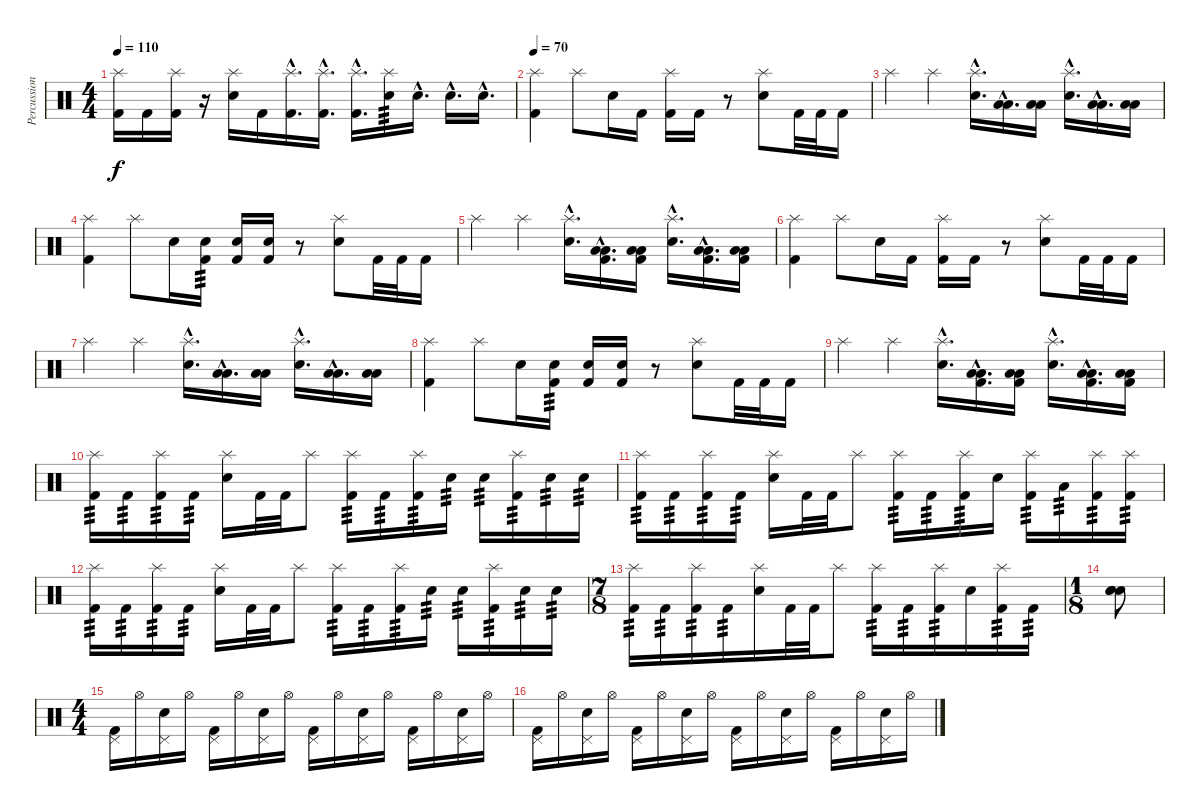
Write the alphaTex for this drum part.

\track ("Percussion" "Percussion") {instrument percussion}
\staff {score}
\articulation defaults
\ts (4 4)
\tempo 110
\clef neutral
\ks c
("Splash (hit)" "Kick (hit) 2").16{dy f} "Kick (hit) 2".16 ("Splash (hit)" "Kick (hit) 2").16 r.16 ("Splash (hit)" "Electric Snare (hit)").16 "Kick (hit) 2".16 ("Splash (hit)"{hac} "Kick (hit) 2"{hac}).16{d} ("Splash (hit)"{hac} "Kick (hit) 2"{hac}).16{d} ("Splash (hit)"{hac} "Kick (hit) 2"{hac}).16{d} ("Splash (hit)" "Electric Snare (hit)").16{tp 3} "Electric Snare (hit)"{hac}.16{d} "Electric Snare (hit)"{hac}.16{d} "Electric Snare (hit)"{hac}.16{d} |
\tempo 70
("Splash (hit)" "Kick (hit) 2").4 "Splash (hit)".8 "Electric Snare (hit)".16 "Kick (hit) 2".16 ("Splash (hit)" "Kick (hit) 2").16 "Kick (hit) 2".16 r.8 ("Splash (hit)" "Electric Snare (hit)").8 "Kick (hit) 2".32 "Kick (hit) 2".32 "Kick (hit) 2".16 |
"Splash (hit)".4 "Splash (hit)".4 ("Splash (hit)"{hac} "Electric Snare (hit)"{hac}).16{d} ("Low Tom (hit)"{hac} "Low Floor Tom (hit)"{hac}).16{d} ("Low Tom (hit)" "Low Floor Tom (hit)").16 ("Splash (hit)"{hac} "Electric Snare (hit)"{hac}).16{d} ("Low Tom (hit)"{hac} "Low Floor Tom (hit)"{hac}).16{d} ("Low Tom (hit)" "Low Floor Tom (hit)").16 |
("Splash (hit)" "Kick (hit) 2").4 "Splash (hit)".8 "Electric Snare (hit)".16 ("Electric Snare (hit)" "Kick (hit) 2").16{tp 3} ("Electric Snare (hit)" "Kick (hit) 2").16 ("Electric Snare (hit)" "Kick (hit) 2").16 r.8 ("Splash (hit)" "Electric Snare (hit)").8 "Kick (hit) 2".32 "Kick (hit) 2".32 "Kick (hit) 2".16 |
"Splash (hit)".4 "Splash (hit)".4 ("Splash (hit)"{hac} "Electric Snare (hit)"{hac}).16{d} ("Low Tom (hit)"{hac} "Low Floor Tom (hit)"{hac} "Kick (hit) 2"{hac}).16{d} ("Low Tom (hit)" "Low Floor Tom (hit)" "Kick (hit) 2").16 ("Splash (hit)"{hac} "Electric Snare (hit)"{hac}).16{d} ("Low Tom (hit)"{hac} "Low Floor Tom (hit)"{hac} "Kick (hit) 2"{hac}).16{d} ("Low Tom (hit)" "Low Floor Tom (hit)" "Kick (hit) 2").16 |
("Splash (hit)" "Kick (hit) 2").4 "Splash (hit)".8 "Electric Snare (hit)".16 "Kick (hit) 2".16 ("Splash (hit)" "Kick (hit) 2").16 "Kick (hit) 2".16 r.8 ("Splash (hit)" "Electric Snare (hit)").8 "Kick (hit) 2".32 "Kick (hit) 2".32 "Kick (hit) 2".16 |
"Splash (hit)".4 "Splash (hit)".4 ("Splash (hit)"{hac} "Electric Snare (hit)"{hac}).16{d} ("Low Tom (hit)"{hac} "Low Floor Tom (hit)"{hac}).16{d} ("Low Tom (hit)" "Low Floor Tom (hit)").16 ("Splash (hit)"{hac} "Electric Snare (hit)"{hac}).16{d} ("Low Tom (hit)"{hac} "Low Floor Tom (hit)"{hac}).16{d} ("Low Tom (hit)" "Low Floor Tom (hit)").16 |
("Splash (hit)" "Kick (hit) 2").4 "Splash (hit)".8 "Electric Snare (hit)".16 ("Electric Snare (hit)" "Kick (hit) 2").16{tp 3} ("Electric Snare (hit)" "Kick (hit) 2").16 ("Electric Snare (hit)" "Kick (hit) 2").16 r.8 ("Splash (hit)" "Electric Snare (hit)").8 "Kick (hit) 2".32 "Kick (hit) 2".32 "Kick (hit) 2".16 |
"Splash (hit)".4 "Splash (hit)".4 ("Splash (hit)"{hac} "Electric Snare (hit)"{hac}).16{d} ("Low Tom (hit)"{hac} "Low Floor Tom (hit)"{hac} "Kick (hit) 2"{hac}).16{d} ("Low Tom (hit)" "Low Floor Tom (hit)" "Kick (hit) 2").16 ("Splash (hit)"{hac} "Electric Snare (hit)"{hac}).16{d} ("Low Tom (hit)"{hac} "Low Floor Tom (hit)"{hac} "Kick (hit) 2"{hac}).16{d} ("Low Tom (hit)" "Low Floor Tom (hit)" "Kick (hit) 2").16 |
("Splash (hit)" "Kick (hit) 2").16{tp 3} "Kick (hit) 2".16{tp 3} ("Splash (hit)" "Kick (hit) 2").16{tp 3} "Kick (hit) 2".16{tp 3} ("Splash (hit)" "Electric Snare (hit)").16 "Kick (hit) 2".32 "Kick (hit) 2".32 "Splash (hit)".8 ("Splash (hit)" "Kick (hit) 2").16{tp 3} "Kick (hit) 2".16{tp 3} ("Splash (hit)" "Kick (hit) 2").16{tp 3} "Electric Snare (hit)".16{tp 3} "Electric Snare (hit)".16{tp 3} ("Splash (hit)" "Kick (hit) 2").16{tp 3} "Electric Snare (hit)".16{tp 3} "Electric Snare (hit)".16{tp 3} |
("Splash (hit)" "Kick (hit) 2").16{tp 3} "Kick (hit) 2".16{tp 3} ("Splash (hit)" "Kick (hit) 2").16{tp 3} "Kick (hit) 2".16{tp 3} ("Splash (hit)" "Electric Snare (hit)").16 "Kick (hit) 2".32 "Kick (hit) 2".32 "Splash (hit)".8 ("Splash (hit)" "Kick (hit) 2").16{tp 3} "Kick (hit) 2".16{tp 3} ("Splash (hit)" "Kick (hit) 2").16{tp 3} "Electric Snare (hit)".16 ("Splash (hit)" "Kick (hit) 2").16{tp 3} "Low Floor Tom (hit)".16{tp 3} ("Splash (hit)" "Kick (hit) 2").16{tp 3} ("Splash (hit)" "Kick (hit) 2").16{tp 3} |
("Splash (hit)" "Kick (hit) 2").16{tp 3} "Kick (hit) 2".16{tp 3} ("Splash (hit)" "Kick (hit) 2").16{tp 3} "Kick (hit) 2".16{tp 3} ("Splash (hit)" "Electric Snare (hit)").16 "Kick (hit) 2".32 "Kick (hit) 2".32 "Splash (hit)".8 ("Splash (hit)" "Kick (hit) 2").16{tp 3} "Kick (hit) 2".16{tp 3} ("Splash (hit)" "Kick (hit) 2").16{tp 3} "Electric Snare (hit)".16{tp 3} "Electric Snare (hit)".16{tp 3} ("Splash (hit)" "Kick (hit) 2").16{tp 3} "Electric Snare (hit)".16{tp 3} "Electric Snare (hit)".16{tp 3} |
\ts (7 8)
("Splash (hit)" "Kick (hit) 2").16{tp 3} "Kick (hit) 2".16{tp 3} ("Splash (hit)" "Kick (hit) 2").16{tp 3} "Kick (hit) 2".16{tp 3} ("Splash (hit)" "Electric Snare (hit)").16 "Kick (hit) 2".32 "Kick (hit) 2".32 "Splash (hit)".8 ("Splash (hit)" "Kick (hit) 2").16{tp 3} "Kick (hit) 2".16{tp 3} ("Splash (hit)" "Kick (hit) 2").16{tp 3} "Electric Snare (hit)".16 ("Splash (hit)" "Kick (hit) 2").16{tp 3} "Kick (hit) 2".16{tp 3} |
\ts (1 8)
("Hand Clap (hit)" "Hand Clap (hit)" "Hand Clap (hit)").8 |
\ts (4 4)
("Pedal Hi-Hat (hit)" "Kick (hit) 2").16 "Hi-Hat (open)".16 ("Pedal Hi-Hat (hit)" "Electric Snare (hit)").16 "Hi-Hat (open)".16 ("Pedal Hi-Hat (hit)" "Kick (hit) 2").16 "Hi-Hat (open)".16 ("Pedal Hi-Hat (hit)" "Electric Snare (hit)").16 "Hi-Hat (open)".16 ("Pedal Hi-Hat (hit)" "Kick (hit) 2").16 "Hi-Hat (open)".16 ("Pedal Hi-Hat (hit)" "Electric Snare (hit)").16 "Hi-Hat (open)".16 ("Pedal Hi-Hat (hit)" "Kick (hit) 2").16 "Hi-Hat (open)".16 ("Pedal Hi-Hat (hit)" "Electric Snare (hit)").16 "Hi-Hat (open)".16 |
("Pedal Hi-Hat (hit)" "Kick (hit) 2").16 "Hi-Hat (open)".16 ("Pedal Hi-Hat (hit)" "Electric Snare (hit)").16 "Hi-Hat (open)".16 ("Pedal Hi-Hat (hit)" "Kick (hit) 2").16 "Hi-Hat (open)".16 ("Pedal Hi-Hat (hit)" "Electric Snare (hit)").16 "Hi-Hat (open)".16 ("Pedal Hi-Hat (hit)" "Kick (hit) 2").16 "Hi-Hat (open)".16 ("Pedal Hi-Hat (hit)" "Electric Snare (hit)").16 "Hi-Hat (open)".16 ("Pedal Hi-Hat (hit)" "Kick (hit) 2").16 "Hi-Hat (open)".16 ("Pedal Hi-Hat (hit)" "Electric Snare (hit)").16 "Hi-Hat (open)".16
